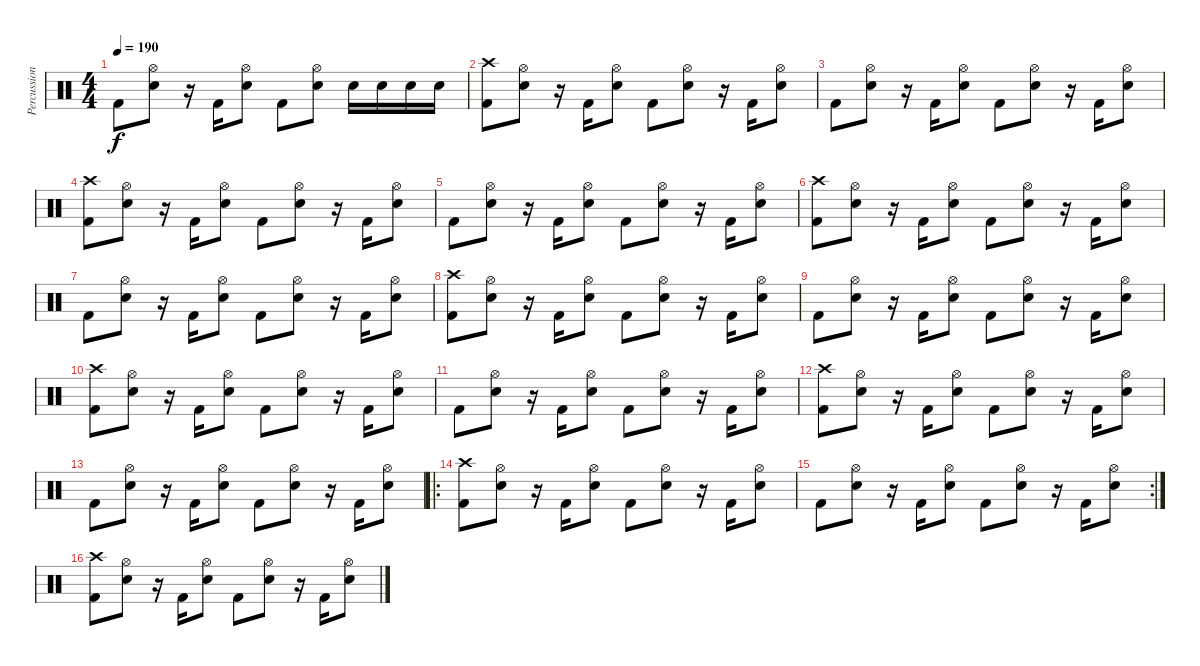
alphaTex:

\track ("Percussions" "Percussion") {instrument percussion}
\staff {score}
\articulation defaults
\ts (4 4)
\tempo 190
\clef neutral
\ks c "Kick (hit) 2".8{dy f}
("Hi-Hat (open)" "Electric Snare (hit)").8 r.16 "Kick (hit) 2".16 ("Hi-Hat (open)" "Electric Snare (hit)").8 "Kick (hit) 2".8 ("Hi-Hat (open)" "Electric Snare (hit)").8 "Electric Snare (hit)".16 "Electric Snare (hit)".16 "Electric Snare (hit)".16 "Electric Snare (hit)".16 |
("Crash high (hit)" "Kick (hit) 2").8 ("Hi-Hat (open)" "Electric Snare (hit)").8 r.16 "Kick (hit) 2".16 ("Hi-Hat (open)" "Electric Snare (hit)").8 "Kick (hit) 2".8 ("Hi-Hat (open)" "Electric Snare (hit)").8 r.16 "Kick (hit) 2".16 ("Hi-Hat (open)" "Electric Snare (hit)").8 |
"Kick (hit) 2".8 ("Hi-Hat (open)" "Electric Snare (hit)").8 r.16 "Kick (hit) 2".16 ("Hi-Hat (open)" "Electric Snare (hit)").8 "Kick (hit) 2".8 ("Hi-Hat (open)" "Electric Snare (hit)").8 r.16 "Kick (hit) 2".16 ("Hi-Hat (open)" "Electric Snare (hit)").8 |
("Crash high (hit)" "Kick (hit) 2").8 ("Hi-Hat (open)" "Electric Snare (hit)").8 r.16 "Kick (hit) 2".16 ("Hi-Hat (open)" "Electric Snare (hit)").8 "Kick (hit) 2".8 ("Hi-Hat (open)" "Electric Snare (hit)").8 r.16 "Kick (hit) 2".16 ("Hi-Hat (open)" "Electric Snare (hit)").8 |
"Kick (hit) 2".8 ("Hi-Hat (open)" "Electric Snare (hit)").8 r.16 "Kick (hit) 2".16 ("Hi-Hat (open)" "Electric Snare (hit)").8 "Kick (hit) 2".8 ("Hi-Hat (open)" "Electric Snare (hit)").8 r.16 "Kick (hit) 2".16 ("Hi-Hat (open)" "Electric Snare (hit)").8 |
("Crash high (hit)" "Kick (hit) 2").8 ("Hi-Hat (open)" "Electric Snare (hit)").8 r.16 "Kick (hit) 2".16 ("Hi-Hat (open)" "Electric Snare (hit)").8 "Kick (hit) 2".8 ("Hi-Hat (open)" "Electric Snare (hit)").8 r.16 "Kick (hit) 2".16 ("Hi-Hat (open)" "Electric Snare (hit)").8 |
"Kick (hit) 2".8 ("Hi-Hat (open)" "Electric Snare (hit)").8 r.16 "Kick (hit) 2".16 ("Hi-Hat (open)" "Electric Snare (hit)").8 "Kick (hit) 2".8 ("Hi-Hat (open)" "Electric Snare (hit)").8 r.16 "Kick (hit) 2".16 ("Hi-Hat (open)" "Electric Snare (hit)").8 |
("Crash high (hit)" "Kick (hit) 2").8 ("Hi-Hat (open)" "Electric Snare (hit)").8 r.16 "Kick (hit) 2".16 ("Hi-Hat (open)" "Electric Snare (hit)").8 "Kick (hit) 2".8 ("Hi-Hat (open)" "Electric Snare (hit)").8 r.16 "Kick (hit) 2".16 ("Hi-Hat (open)" "Electric Snare (hit)").8 |
"Kick (hit) 2".8 ("Hi-Hat (open)" "Electric Snare (hit)").8 r.16 "Kick (hit) 2".16 ("Hi-Hat (open)" "Electric Snare (hit)").8 "Kick (hit) 2".8 ("Hi-Hat (open)" "Electric Snare (hit)").8 r.16 "Kick (hit) 2".16 ("Hi-Hat (open)" "Electric Snare (hit)").8 |
("Crash high (hit)" "Kick (hit) 2").8 ("Hi-Hat (open)" "Electric Snare (hit)").8 r.16 "Kick (hit) 2".16 ("Hi-Hat (open)" "Electric Snare (hit)").8 "Kick (hit) 2".8 ("Hi-Hat (open)" "Electric Snare (hit)").8 r.16 "Kick (hit) 2".16 ("Hi-Hat (open)" "Electric Snare (hit)").8 |
"Kick (hit) 2".8 ("Hi-Hat (open)" "Electric Snare (hit)").8 r.16 "Kick (hit) 2".16 ("Hi-Hat (open)" "Electric Snare (hit)").8 "Kick (hit) 2".8 ("Hi-Hat (open)" "Electric Snare (hit)").8 r.16 "Kick (hit) 2".16 ("Hi-Hat (open)" "Electric Snare (hit)").8 |
("Crash high (hit)" "Kick (hit) 2").8 ("Hi-Hat (open)" "Electric Snare (hit)").8 r.16 "Kick (hit) 2".16 ("Hi-Hat (open)" "Electric Snare (hit)").8 "Kick (hit) 2".8 ("Hi-Hat (open)" "Electric Snare (hit)").8 r.16 "Kick (hit) 2".16 ("Hi-Hat (open)" "Electric Snare (hit)").8 |
"Kick (hit) 2".8 ("Hi-Hat (open)" "Electric Snare (hit)").8 r.16 "Kick (hit) 2".16 ("Hi-Hat (open)" "Electric Snare (hit)").8 "Kick (hit) 2".8 ("Hi-Hat (open)" "Electric Snare (hit)").8 r.16 "Kick (hit) 2".16 ("Hi-Hat (open)" "Electric Snare (hit)").8 |
\ro
("Crash high (hit)" "Kick (hit) 2").8 ("Hi-Hat (open)" "Electric Snare (hit)").8 r.16 "Kick (hit) 2".16 ("Hi-Hat (open)" "Electric Snare (hit)").8 "Kick (hit) 2".8 ("Hi-Hat (open)" "Electric Snare (hit)").8 r.16 "Kick (hit) 2".16 ("Hi-Hat (open)" "Electric Snare (hit)").8 |
\rc 2 "Kick (hit) 2".8
("Hi-Hat (open)" "Electric Snare (hit)").8 r.16 "Kick (hit) 2".16 ("Hi-Hat (open)" "Electric Snare (hit)").8 "Kick (hit) 2".8 ("Hi-Hat (open)" "Electric Snare (hit)").8 r.16 "Kick (hit) 2".16 ("Hi-Hat (open)" "Electric Snare (hit)").8 |
("Crash high (hit)" "Kick (hit) 2").8 ("Hi-Hat (open)" "Electric Snare (hit)").8 r.16 "Kick (hit) 2".16 ("Hi-Hat (open)" "Electric Snare (hit)").8 "Kick (hit) 2".8 ("Hi-Hat (open)" "Electric Snare (hit)").8 r.16 "Kick (hit) 2".16 ("Hi-Hat (open)" "Electric Snare (hit)").8
